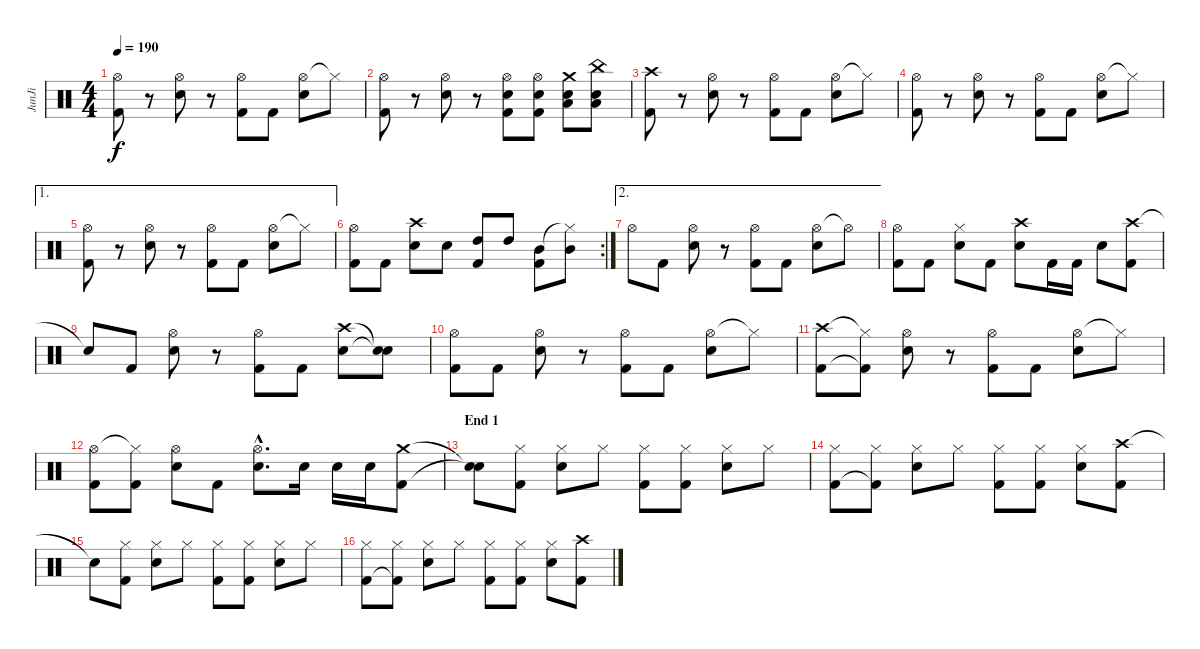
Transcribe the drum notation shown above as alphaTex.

\track ("JunJi" "JunJi") {instrument percussion}
\staff {score}
\articulation defaults
\ts (4 4)
\tempo 190
\clef neutral
\ks c
("Hi-Hat (open)" "Kick (hit) 2").8{dy f} r.8 ("Hi-Hat (open)" "Snare (hit) 2").8 r.8 ("Hi-Hat (open)" "Kick (hit) 2").8 "Kick (hit) 2".8 ("Hi-Hat (open)" "Snare (hit) 2").8 "Hi-Hat (closed)"{t}.8 |
("Hi-Hat (open)" "Kick (hit) 2").8 r.8 ("Hi-Hat (open)" "Snare (hit) 2").8 r.8 ("Hi-Hat (open)" "Snare (hit) 2" "Kick (hit) 2").8 ("Hi-Hat (open)" "Snare (hit) 2" "Kick (hit) 2").8 ("Crash medium (hit)" "Snare (hit) 2" "Low Tom (hit)").8 ("China (hit)" "Snare (hit) 2" "Low Tom (hit)").8 |
("Crash high (hit)" "Kick (hit) 2").8 r.8 ("Hi-Hat (open)" "Snare (hit) 2").8 r.8 ("Hi-Hat (open)" "Kick (hit) 2").8 "Kick (hit) 2".8 ("Hi-Hat (open)" "Snare (hit) 2").8 "Hi-Hat (closed)"{t}.8 |
("Hi-Hat (open)" "Kick (hit) 2").8 r.8 ("Hi-Hat (open)" "Snare (hit) 2").8 r.8 ("Hi-Hat (open)" "Kick (hit) 2").8 "Kick (hit) 2".8 ("Hi-Hat (open)" "Snare (hit) 2").8 "Hi-Hat (closed)"{t}.8 |
\ae 1
("Hi-Hat (open)" "Kick (hit) 2").8 r.8 ("Hi-Hat (open)" "Snare (hit) 2").8 r.8 ("Hi-Hat (open)" "Kick (hit) 2").8 "Kick (hit) 2".8 ("Hi-Hat (open)" "Snare (hit) 2").8 "Hi-Hat (closed)"{t}.8 |
\rc 2
("Hi-Hat (open)" "Kick (hit) 2").8 "Kick (hit) 2".8 ("Crash high (hit)" "Snare (hit) 2").8 "Snare (hit) 2".8 ("High Tom (hit)" "Kick (hit) 2").8 "High Tom (hit)".8 ("Mid Tom (hit)" "Kick (hit) 2").8 ("Hi-Hat (closed)"{t} "Mid Tom (hit)").8 |
\ae 2 "Hi-Hat (open)".8 "Kick (hit) 2".8
("Hi-Hat (open)" "Snare (hit) 2").8 r.8 ("Hi-Hat (open)" "Kick (hit) 2").8 "Kick (hit) 2".8 ("Hi-Hat (open)" "Snare (hit) 2").8 "Hi-Hat (open)"{t}.8 |
("Hi-Hat (open)" "Kick (hit) 2").8 "Kick (hit) 2".8 ("Hi-Hat (closed)" "Snare (hit) 2").8 "Kick (hit) 2".8 ("Crash high (hit)" "Snare (hit) 2").8 "Kick (hit) 2".16 "Kick (hit) 2".16 "Snare (hit) 2".8 ("Crash high (hit)" "Kick (hit) 2").8 |
"Snare (hit)"{t}.8 "Kick (hit) 2".8 ("Hi-Hat (open)" "Snare (hit) 2").8 r.8 ("Hi-Hat (open)" "Kick (hit) 2").8 "Kick (hit) 2".8 ("Crash high (hit)" "Snare (hit) 2").8 ("Snare (hit)"{t} "Snare (hit)"{t}).8 |
("Hi-Hat (open)" "Kick (hit) 2").8 "Kick (hit) 2".8 ("Hi-Hat (open)" "Snare (hit) 2").8 r.8 ("Hi-Hat (open)" "Kick (hit) 2").8 "Kick (hit) 2".8 ("Hi-Hat (open)" "Snare (hit) 2").8 "Hi-Hat (closed)"{t}.8 |
("Crash high (hit)" "Kick (hit) 2").8 ("Hi-Hat (closed)"{t} "Kick (hit) 2"{t}).8 ("Hi-Hat (open)" "Snare (hit) 2").8 r.8 ("Hi-Hat (open)" "Kick (hit) 2").8 "Kick (hit) 2".8 ("Hi-Hat (open)" "Snare (hit) 2").8 "Hi-Hat (closed)"{t}.8 |
("Hi-Hat (open)" "Kick (hit) 2").8 ("Hi-Hat (closed)"{t} "Kick (hit) 2").8 ("Hi-Hat (open)" "Snare (hit) 2").8 "Kick (hit) 2".8 ("Hi-Hat (open)"{hac} "Snare (hit) 2"{hac}).8{d} "Snare (hit) 2".16 "Snare (hit) 2".16 "Snare (hit) 2".16 ("Crash medium (hit)" "Kick (hit) 2").8 |
\section ("" "End 1")
("Snare (hit)"{t} "Snare (hit)"{t}).8 ("Hi-Hat (closed)" "Kick (hit) 2").8 ("Hi-Hat (closed)" "Snare (hit) 2").8 "Hi-Hat (closed)".8 ("Hi-Hat (closed)" "Kick (hit) 2").8 ("Hi-Hat (closed)" "Kick (hit) 2").8 ("Hi-Hat (closed)" "Snare (hit) 2").8 "Hi-Hat (closed)".8 |
("Hi-Hat (closed)" "Kick (hit) 2").8 ("Hi-Hat (closed)" "Kick (hit) 2"{t}).8 ("Hi-Hat (closed)" "Snare (hit) 2").8 "Hi-Hat (closed)".8 ("Hi-Hat (closed)" "Kick (hit) 2").8 ("Hi-Hat (closed)" "Kick (hit) 2").8 ("Hi-Hat (closed)" "Snare (hit) 2").8 ("Crash high (hit)" "Kick (hit) 2").8 |
"Snare (hit)"{t}.8 ("Hi-Hat (closed)" "Kick (hit) 2").8 ("Hi-Hat (closed)" "Snare (hit) 2").8 "Hi-Hat (closed)".8 ("Hi-Hat (closed)" "Kick (hit) 2").8 ("Hi-Hat (closed)" "Kick (hit) 2").8 ("Hi-Hat (closed)" "Snare (hit) 2").8 "Hi-Hat (closed)".8 |
("Hi-Hat (closed)" "Kick (hit) 2").8 ("Hi-Hat (closed)" "Kick (hit) 2"{t}).8 ("Hi-Hat (closed)" "Snare (hit) 2").8 "Hi-Hat (closed)".8 ("Hi-Hat (closed)" "Kick (hit) 2").8 ("Hi-Hat (closed)" "Kick (hit) 2").8 ("Hi-Hat (closed)" "Snare (hit) 2").8 ("Crash high (hit)" "Kick (hit) 2").8
